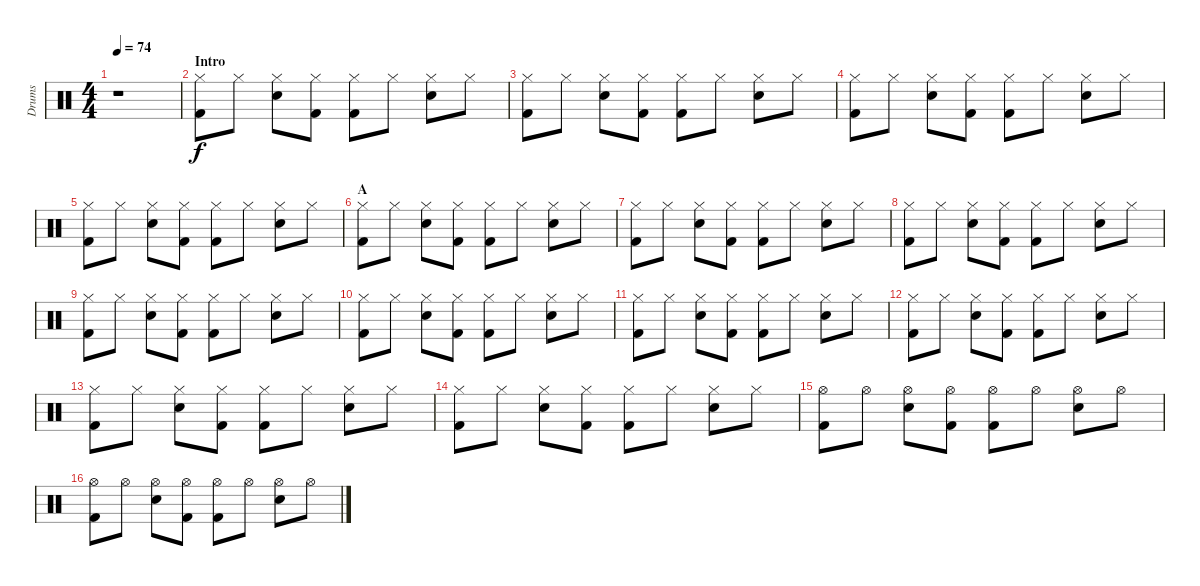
\track ("Drums" "Drums") {instrument percussion}
\staff {score}
\articulation defaults
\ts (4 4)
\tempo 74
\clef neutral
\ks c
r.1{dy f} |
\section ("" "Intro")
("Hi-Hat (closed)" "Kick (hit) 2").8 "Hi-Hat (closed)".8 ("Hi-Hat (closed)" "Snare (hit) 2").8 ("Hi-Hat (closed)" "Kick (hit) 2").8 ("Hi-Hat (closed)" "Kick (hit) 2").8 "Hi-Hat (closed)".8 ("Hi-Hat (closed)" "Snare (hit) 2").8 "Hi-Hat (closed)".8 |
("Hi-Hat (closed)" "Kick (hit) 2").8 "Hi-Hat (closed)".8 ("Hi-Hat (closed)" "Snare (hit) 2").8 ("Hi-Hat (closed)" "Kick (hit) 2").8 ("Hi-Hat (closed)" "Kick (hit) 2").8 "Hi-Hat (closed)".8 ("Hi-Hat (closed)" "Snare (hit) 2").8 "Hi-Hat (closed)".8 |
("Hi-Hat (closed)" "Kick (hit) 2").8 "Hi-Hat (closed)".8 ("Hi-Hat (closed)" "Snare (hit) 2").8 ("Hi-Hat (closed)" "Kick (hit) 2").8 ("Hi-Hat (closed)" "Kick (hit) 2").8 "Hi-Hat (closed)".8 ("Hi-Hat (closed)" "Snare (hit) 2").8 "Hi-Hat (closed)".8 |
("Hi-Hat (closed)" "Kick (hit) 2").8 "Hi-Hat (closed)".8 ("Hi-Hat (closed)" "Snare (hit) 2").8 ("Hi-Hat (closed)" "Kick (hit) 2").8 ("Hi-Hat (closed)" "Kick (hit) 2").8 "Hi-Hat (closed)".8 ("Hi-Hat (closed)" "Snare (hit) 2").8 "Hi-Hat (closed)".8 |
\section ("" "A")
("Hi-Hat (closed)" "Kick (hit) 2").8 "Hi-Hat (closed)".8 ("Hi-Hat (closed)" "Snare (hit) 2").8 ("Hi-Hat (closed)" "Kick (hit) 2").8 ("Hi-Hat (closed)" "Kick (hit) 2").8 "Hi-Hat (closed)".8 ("Hi-Hat (closed)" "Snare (hit) 2").8 "Hi-Hat (closed)".8 |
("Hi-Hat (closed)" "Kick (hit) 2").8 "Hi-Hat (closed)".8 ("Hi-Hat (closed)" "Snare (hit) 2").8 ("Hi-Hat (closed)" "Kick (hit) 2").8 ("Hi-Hat (closed)" "Kick (hit) 2").8 "Hi-Hat (closed)".8 ("Hi-Hat (closed)" "Snare (hit) 2").8 "Hi-Hat (closed)".8 |
("Hi-Hat (closed)" "Kick (hit) 2").8 "Hi-Hat (closed)".8 ("Hi-Hat (closed)" "Snare (hit) 2").8 ("Hi-Hat (closed)" "Kick (hit) 2").8 ("Hi-Hat (closed)" "Kick (hit) 2").8 "Hi-Hat (closed)".8 ("Hi-Hat (closed)" "Snare (hit) 2").8 "Hi-Hat (closed)".8 |
("Hi-Hat (closed)" "Kick (hit) 2").8 "Hi-Hat (closed)".8 ("Hi-Hat (closed)" "Snare (hit) 2").8 ("Hi-Hat (closed)" "Kick (hit) 2").8 ("Hi-Hat (closed)" "Kick (hit) 2").8 "Hi-Hat (closed)".8 ("Hi-Hat (closed)" "Snare (hit) 2").8 "Hi-Hat (closed)".8 |
("Hi-Hat (closed)" "Kick (hit) 2").8 "Hi-Hat (closed)".8 ("Hi-Hat (closed)" "Snare (hit) 2").8 ("Hi-Hat (closed)" "Kick (hit) 2").8 ("Hi-Hat (closed)" "Kick (hit) 2").8 "Hi-Hat (closed)".8 ("Hi-Hat (closed)" "Snare (hit) 2").8 "Hi-Hat (closed)".8 |
("Hi-Hat (closed)" "Kick (hit) 2").8 "Hi-Hat (closed)".8 ("Hi-Hat (closed)" "Snare (hit) 2").8 ("Hi-Hat (closed)" "Kick (hit) 2").8 ("Hi-Hat (closed)" "Kick (hit) 2").8 "Hi-Hat (closed)".8 ("Hi-Hat (closed)" "Snare (hit) 2").8 "Hi-Hat (closed)".8 |
("Hi-Hat (closed)" "Kick (hit) 2").8 "Hi-Hat (closed)".8 ("Hi-Hat (closed)" "Snare (hit) 2").8 ("Hi-Hat (closed)" "Kick (hit) 2").8 ("Hi-Hat (closed)" "Kick (hit) 2").8 "Hi-Hat (closed)".8 ("Hi-Hat (closed)" "Snare (hit) 2").8 "Hi-Hat (closed)".8 |
("Hi-Hat (closed)" "Kick (hit) 2").8 "Hi-Hat (closed)".8 ("Hi-Hat (closed)" "Snare (hit) 2").8 ("Hi-Hat (closed)" "Kick (hit) 2").8 ("Hi-Hat (closed)" "Kick (hit) 2").8 "Hi-Hat (closed)".8 ("Hi-Hat (closed)" "Snare (hit) 2").8 "Hi-Hat (closed)".8 |
("Hi-Hat (closed)" "Kick (hit) 2").8 "Hi-Hat (closed)".8 ("Hi-Hat (closed)" "Snare (hit) 2").8 ("Hi-Hat (closed)" "Kick (hit) 2").8 ("Hi-Hat (closed)" "Kick (hit) 2").8 "Hi-Hat (closed)".8 ("Hi-Hat (closed)" "Snare (hit) 2").8 "Hi-Hat (closed)".8 |
("Hi-Hat (open)" "Kick (hit) 2").8 "Hi-Hat (open)".8 ("Hi-Hat (open)" "Snare (hit) 2").8 ("Hi-Hat (open)" "Kick (hit) 2").8 ("Hi-Hat (open)" "Kick (hit) 2").8 "Hi-Hat (open)".8 ("Hi-Hat (open)" "Snare (hit) 2").8 "Hi-Hat (open)".8 |
("Hi-Hat (open)" "Kick (hit) 2").8 "Hi-Hat (open)".8 ("Hi-Hat (open)" "Snare (hit) 2").8 ("Hi-Hat (open)" "Kick (hit) 2").8 ("Hi-Hat (open)" "Kick (hit) 2").8 "Hi-Hat (open)".8 ("Hi-Hat (open)" "Snare (hit) 2").8 "Hi-Hat (open)".8
